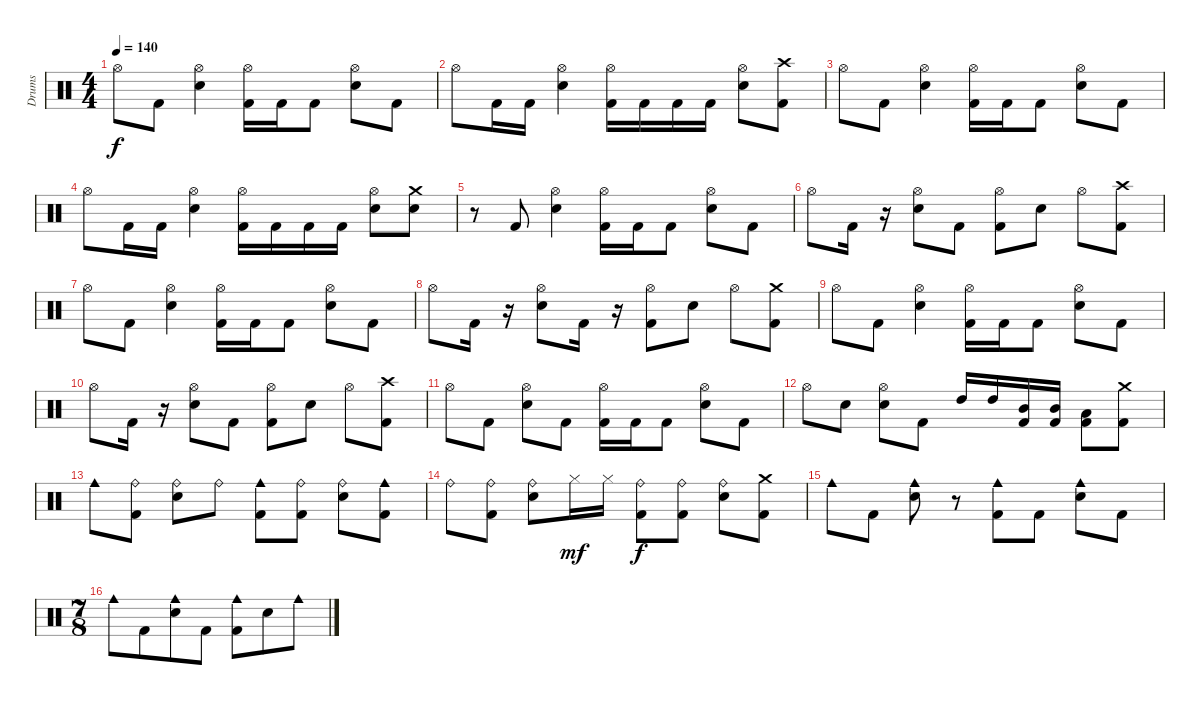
\track ("Drums" "Drums") {instrument percussion}
\staff {score}
\articulation defaults
\ts (4 4)
\tempo 140
\clef neutral
\ks c "Hi-Hat (open)".8{dy f} "Kick (hit) 2".8
("Electric Snare (hit)" "Hi-Hat (open)").4 ("Kick (hit) 2" "Hi-Hat (open)").16 "Kick (hit) 2".16 "Kick (hit) 2".8 ("Hi-Hat (open)" "Electric Snare (hit)").8 "Kick (hit) 2".8 |
"Hi-Hat (open)".8 "Kick (hit) 2".16 "Kick (hit) 2".16 ("Electric Snare (hit)" "Hi-Hat (open)").4 ("Hi-Hat (open)" "Kick (hit) 2").16 "Kick (hit) 2".16 "Kick (hit) 2".16 "Kick (hit) 2".16 ("Hi-Hat (open)" "Electric Snare (hit)").8 ("Crash high (hit)" "Kick (hit) 2").8 |
"Hi-Hat (open)".8 "Kick (hit) 2".8 ("Electric Snare (hit)" "Hi-Hat (open)").4 ("Kick (hit) 2" "Hi-Hat (open)").16 "Kick (hit) 2".16 "Kick (hit) 2".8 ("Hi-Hat (open)" "Electric Snare (hit)").8 "Kick (hit) 2".8 |
"Hi-Hat (open)".8 "Kick (hit) 2".16 "Kick (hit) 2".16 ("Electric Snare (hit)" "Hi-Hat (open)").4 ("Hi-Hat (open)" "Kick (hit) 2").16 "Kick (hit) 2".16 "Kick (hit) 2".16 "Kick (hit) 2".16 ("Hi-Hat (open)" "Electric Snare (hit)").8 ("Electric Snare (hit)" "Crash medium (hit)").8 |
r.8 "Kick (hit) 2".8 ("Electric Snare (hit)" "Hi-Hat (open)").4 ("Kick (hit) 2" "Hi-Hat (open)").16 "Kick (hit) 2".16 "Kick (hit) 2".8 ("Hi-Hat (open)" "Electric Snare (hit)").8 "Kick (hit) 2".8 |
"Hi-Hat (open)".8 "Kick (hit) 2".16 r.16 ("Electric Snare (hit)" "Hi-Hat (open)").8 "Kick (hit) 2".8 ("Hi-Hat (open)" "Kick (hit) 2").8 "Electric Snare (hit)".8 "Hi-Hat (open)".8 ("Kick (hit) 2" "Crash high (hit)").8 |
"Hi-Hat (open)".8 "Kick (hit) 2".8 ("Electric Snare (hit)" "Hi-Hat (open)").4 ("Kick (hit) 2" "Hi-Hat (open)").16 "Kick (hit) 2".16 "Kick (hit) 2".8 ("Hi-Hat (open)" "Electric Snare (hit)").8 "Kick (hit) 2".8 |
"Hi-Hat (open)".8 "Kick (hit) 2".16 r.16 ("Electric Snare (hit)" "Hi-Hat (open)").8 "Kick (hit) 2".16 r.16 ("Hi-Hat (open)" "Kick (hit) 2").8 "Electric Snare (hit)".8 "Hi-Hat (open)".8 ("Crash medium (hit)" "Kick (hit) 2").8 |
"Hi-Hat (open)".8 "Kick (hit) 2".8 ("Electric Snare (hit)" "Hi-Hat (open)").4 ("Kick (hit) 2" "Hi-Hat (open)").16 "Kick (hit) 2".16 "Kick (hit) 2".8 ("Hi-Hat (open)" "Electric Snare (hit)").8 "Kick (hit) 2".8 |
"Hi-Hat (open)".8 "Kick (hit) 2".16 r.16 ("Electric Snare (hit)" "Hi-Hat (open)").8 "Kick (hit) 2".8 ("Hi-Hat (open)" "Kick (hit) 2").8 "Electric Snare (hit)".8 "Hi-Hat (open)".8 ("Crash high (hit)" "Kick (hit) 2").8 |
"Hi-Hat (open)".8 "Kick (hit) 2".8 ("Electric Snare (hit)" "Hi-Hat (open)").8 "Kick (hit) 2".8 ("Kick (hit) 2" "Hi-Hat (open)").16 "Kick (hit) 2".16 "Kick (hit) 2".8 ("Hi-Hat (open)" "Electric Snare (hit)").8 "Kick (hit) 2".8 |
"Hi-Hat (open)".8 "Electric Snare (hit)".8 ("Electric Snare (hit)" "Hi-Hat (open)").8 "Kick (hit) 2".8 "High Tom (hit)".16 "High Tom (hit)".16 ("Mid Tom (hit)" "Kick (hit) 2").16 ("Mid Tom (hit)" "Kick (hit) 2").16 ("Low Tom (hit)" "Kick (hit) 2").8 ("Crash medium (hit)" "Kick (hit) 2").8 |
"Cowbell medium (hit)".8 ("Kick (hit) 2" "Ride (bell)").8 ("Electric Snare (hit)" "Ride (bell)").8 "Ride (bell)".8 ("Kick (hit) 2" "Cowbell medium (hit)").8 ("Kick (hit) 2" "Ride (bell)").8 ("Electric Snare (hit)" "Ride (bell)").8 ("Kick (hit) 2" "Cowbell medium (hit)").8 |
"Ride (bell)".8 ("Kick (hit) 2" "Ride (bell)").8 ("Electric Snare (hit)" "Ride (bell)").8 "Hi-Hat (closed)".16{dy mf} "Hi-Hat (closed)".16 ("Kick (hit) 2" "Ride (bell)").8{dy f} ("Kick (hit) 2" "Ride (bell)").8 ("Electric Snare (hit)" "Ride (bell)").8 ("Kick (hit) 2" "Crash medium (hit)").8 |
"Cowbell medium (hit)".8 "Kick (hit) 2".8 ("Electric Snare (hit)" "Cowbell medium (hit)").8 r.8 ("Kick (hit) 2" "Cowbell medium (hit)").8 "Kick (hit) 2".8 ("Electric Snare (hit)" "Cowbell medium (hit)").8 "Kick (hit) 2".8 |
\ts (7 8)
"Cowbell medium (hit)".8 "Kick (hit) 2".8 ("Electric Snare (hit)" "Cowbell medium (hit)").8 "Kick (hit) 2".8 ("Kick (hit) 2" "Cowbell medium (hit)").8 "Electric Snare (hit)".8 "Cowbell medium (hit)".8
